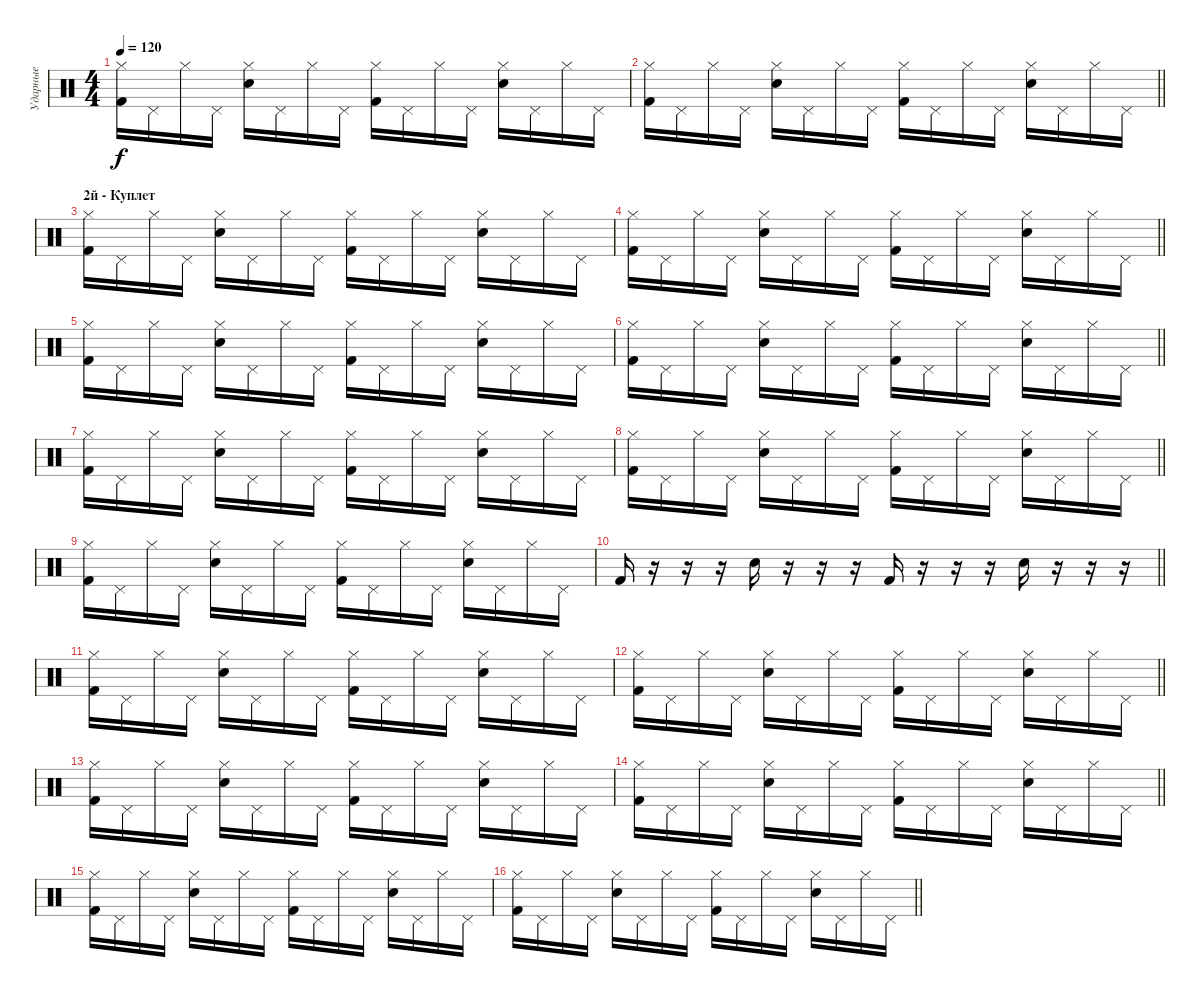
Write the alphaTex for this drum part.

\track ("Ударные" "Ударные") {instrument percussion}
\staff {score}
\articulation defaults
\ts (4 4)
\tempo 120
\clef neutral
\ks c
("Hi-Hat (closed)" "Kick (hit) 2").16{dy f} "Pedal Hi-Hat (hit)".16 "Hi-Hat (closed)".16 "Pedal Hi-Hat (hit)".16 ("Hi-Hat (closed)" "Snare (hit) 2").16 "Pedal Hi-Hat (hit)".16 "Hi-Hat (closed)".16 "Pedal Hi-Hat (hit)".16 ("Hi-Hat (closed)" "Kick (hit) 2").16 "Pedal Hi-Hat (hit)".16 "Hi-Hat (closed)".16 "Pedal Hi-Hat (hit)".16 ("Hi-Hat (closed)" "Snare (hit) 2").16 "Pedal Hi-Hat (hit)".16 "Hi-Hat (closed)".16 "Pedal Hi-Hat (hit)".16 |
\barLineRight lightlight
("Hi-Hat (closed)" "Kick (hit) 2").16 "Pedal Hi-Hat (hit)".16 "Hi-Hat (closed)".16 "Pedal Hi-Hat (hit)".16 ("Hi-Hat (closed)" "Snare (hit) 2").16 "Pedal Hi-Hat (hit)".16 "Hi-Hat (closed)".16 "Pedal Hi-Hat (hit)".16 ("Hi-Hat (closed)" "Kick (hit) 2").16 "Pedal Hi-Hat (hit)".16 "Hi-Hat (closed)".16 "Pedal Hi-Hat (hit)".16 ("Hi-Hat (closed)" "Snare (hit) 2").16 "Pedal Hi-Hat (hit)".16 "Hi-Hat (closed)".16 "Pedal Hi-Hat (hit)".16 |
\section ("" "2й - Куплет")
("Hi-Hat (closed)" "Kick (hit) 2").16 "Pedal Hi-Hat (hit)".16 "Hi-Hat (closed)".16 "Pedal Hi-Hat (hit)".16 ("Hi-Hat (closed)" "Snare (hit) 2").16 "Pedal Hi-Hat (hit)".16 "Hi-Hat (closed)".16 "Pedal Hi-Hat (hit)".16 ("Hi-Hat (closed)" "Kick (hit) 2").16 "Pedal Hi-Hat (hit)".16 "Hi-Hat (closed)".16 "Pedal Hi-Hat (hit)".16 ("Hi-Hat (closed)" "Snare (hit) 2").16 "Pedal Hi-Hat (hit)".16 "Hi-Hat (closed)".16 "Pedal Hi-Hat (hit)".16 |
\barLineRight lightlight
("Hi-Hat (closed)" "Kick (hit) 2").16 "Pedal Hi-Hat (hit)".16 "Hi-Hat (closed)".16 "Pedal Hi-Hat (hit)".16 ("Hi-Hat (closed)" "Snare (hit) 2").16 "Pedal Hi-Hat (hit)".16 "Hi-Hat (closed)".16 "Pedal Hi-Hat (hit)".16 ("Hi-Hat (closed)" "Kick (hit) 2").16 "Pedal Hi-Hat (hit)".16 "Hi-Hat (closed)".16 "Pedal Hi-Hat (hit)".16 ("Hi-Hat (closed)" "Snare (hit) 2").16 "Pedal Hi-Hat (hit)".16 "Hi-Hat (closed)".16 "Pedal Hi-Hat (hit)".16 |
("Hi-Hat (closed)" "Kick (hit) 2").16 "Pedal Hi-Hat (hit)".16 "Hi-Hat (closed)".16 "Pedal Hi-Hat (hit)".16 ("Hi-Hat (closed)" "Snare (hit) 2").16 "Pedal Hi-Hat (hit)".16 "Hi-Hat (closed)".16 "Pedal Hi-Hat (hit)".16 ("Hi-Hat (closed)" "Kick (hit) 2").16 "Pedal Hi-Hat (hit)".16 "Hi-Hat (closed)".16 "Pedal Hi-Hat (hit)".16 ("Hi-Hat (closed)" "Snare (hit) 2").16 "Pedal Hi-Hat (hit)".16 "Hi-Hat (closed)".16 "Pedal Hi-Hat (hit)".16 |
\barLineRight lightlight
("Hi-Hat (closed)" "Kick (hit) 2").16 "Pedal Hi-Hat (hit)".16 "Hi-Hat (closed)".16 "Pedal Hi-Hat (hit)".16 ("Hi-Hat (closed)" "Snare (hit) 2").16 "Pedal Hi-Hat (hit)".16 "Hi-Hat (closed)".16 "Pedal Hi-Hat (hit)".16 ("Hi-Hat (closed)" "Kick (hit) 2").16 "Pedal Hi-Hat (hit)".16 "Hi-Hat (closed)".16 "Pedal Hi-Hat (hit)".16 ("Hi-Hat (closed)" "Snare (hit) 2").16 "Pedal Hi-Hat (hit)".16 "Hi-Hat (closed)".16 "Pedal Hi-Hat (hit)".16 |
("Hi-Hat (closed)" "Kick (hit) 2").16 "Pedal Hi-Hat (hit)".16 "Hi-Hat (closed)".16 "Pedal Hi-Hat (hit)".16 ("Hi-Hat (closed)" "Snare (hit) 2").16 "Pedal Hi-Hat (hit)".16 "Hi-Hat (closed)".16 "Pedal Hi-Hat (hit)".16 ("Hi-Hat (closed)" "Kick (hit) 2").16 "Pedal Hi-Hat (hit)".16 "Hi-Hat (closed)".16 "Pedal Hi-Hat (hit)".16 ("Hi-Hat (closed)" "Snare (hit) 2").16 "Pedal Hi-Hat (hit)".16 "Hi-Hat (closed)".16 "Pedal Hi-Hat (hit)".16 |
\barLineRight lightlight
("Hi-Hat (closed)" "Kick (hit) 2").16 "Pedal Hi-Hat (hit)".16 "Hi-Hat (closed)".16 "Pedal Hi-Hat (hit)".16 ("Hi-Hat (closed)" "Snare (hit) 2").16 "Pedal Hi-Hat (hit)".16 "Hi-Hat (closed)".16 "Pedal Hi-Hat (hit)".16 ("Hi-Hat (closed)" "Kick (hit) 2").16 "Pedal Hi-Hat (hit)".16 "Hi-Hat (closed)".16 "Pedal Hi-Hat (hit)".16 ("Hi-Hat (closed)" "Snare (hit) 2").16 "Pedal Hi-Hat (hit)".16 "Hi-Hat (closed)".16 "Pedal Hi-Hat (hit)".16 |
("Hi-Hat (closed)" "Kick (hit) 2").16 "Pedal Hi-Hat (hit)".16 "Hi-Hat (closed)".16 "Pedal Hi-Hat (hit)".16 ("Hi-Hat (closed)" "Snare (hit) 2").16 "Pedal Hi-Hat (hit)".16 "Hi-Hat (closed)".16 "Pedal Hi-Hat (hit)".16 ("Hi-Hat (closed)" "Kick (hit) 2").16 "Pedal Hi-Hat (hit)".16 "Hi-Hat (closed)".16 "Pedal Hi-Hat (hit)".16 ("Hi-Hat (closed)" "Snare (hit) 2").16 "Pedal Hi-Hat (hit)".16 "Hi-Hat (closed)".16 "Pedal Hi-Hat (hit)".16 |
\barLineRight lightlight "Kick (hit) 2".16
r.16 r.16 r.16 "Snare (hit) 2".16 r.16 r.16 r.16 "Kick (hit) 2".16 r.16 r.16 r.16 "Snare (hit) 2".16 r.16 r.16 r.16 |
("Hi-Hat (closed)" "Kick (hit) 2").16 "Pedal Hi-Hat (hit)".16 "Hi-Hat (closed)".16 "Pedal Hi-Hat (hit)".16 ("Hi-Hat (closed)" "Snare (hit) 2").16 "Pedal Hi-Hat (hit)".16 "Hi-Hat (closed)".16 "Pedal Hi-Hat (hit)".16 ("Hi-Hat (closed)" "Kick (hit) 2").16 "Pedal Hi-Hat (hit)".16 "Hi-Hat (closed)".16 "Pedal Hi-Hat (hit)".16 ("Hi-Hat (closed)" "Snare (hit) 2").16 "Pedal Hi-Hat (hit)".16 "Hi-Hat (closed)".16 "Pedal Hi-Hat (hit)".16 |
\barLineRight lightlight
("Hi-Hat (closed)" "Kick (hit) 2").16 "Pedal Hi-Hat (hit)".16 "Hi-Hat (closed)".16 "Pedal Hi-Hat (hit)".16 ("Hi-Hat (closed)" "Snare (hit) 2").16 "Pedal Hi-Hat (hit)".16 "Hi-Hat (closed)".16 "Pedal Hi-Hat (hit)".16 ("Hi-Hat (closed)" "Kick (hit) 2").16 "Pedal Hi-Hat (hit)".16 "Hi-Hat (closed)".16 "Pedal Hi-Hat (hit)".16 ("Hi-Hat (closed)" "Snare (hit) 2").16 "Pedal Hi-Hat (hit)".16 "Hi-Hat (closed)".16 "Pedal Hi-Hat (hit)".16 |
("Hi-Hat (closed)" "Kick (hit) 2").16 "Pedal Hi-Hat (hit)".16 "Hi-Hat (closed)".16 "Pedal Hi-Hat (hit)".16 ("Hi-Hat (closed)" "Snare (hit) 2").16 "Pedal Hi-Hat (hit)".16 "Hi-Hat (closed)".16 "Pedal Hi-Hat (hit)".16 ("Hi-Hat (closed)" "Kick (hit) 2").16 "Pedal Hi-Hat (hit)".16 "Hi-Hat (closed)".16 "Pedal Hi-Hat (hit)".16 ("Hi-Hat (closed)" "Snare (hit) 2").16 "Pedal Hi-Hat (hit)".16 "Hi-Hat (closed)".16 "Pedal Hi-Hat (hit)".16 |
\barLineRight lightlight
("Hi-Hat (closed)" "Kick (hit) 2").16 "Pedal Hi-Hat (hit)".16 "Hi-Hat (closed)".16 "Pedal Hi-Hat (hit)".16 ("Hi-Hat (closed)" "Snare (hit) 2").16 "Pedal Hi-Hat (hit)".16 "Hi-Hat (closed)".16 "Pedal Hi-Hat (hit)".16 ("Hi-Hat (closed)" "Kick (hit) 2").16 "Pedal Hi-Hat (hit)".16 "Hi-Hat (closed)".16 "Pedal Hi-Hat (hit)".16 ("Hi-Hat (closed)" "Snare (hit) 2").16 "Pedal Hi-Hat (hit)".16 "Hi-Hat (closed)".16 "Pedal Hi-Hat (hit)".16 |
("Hi-Hat (closed)" "Kick (hit) 2").16 "Pedal Hi-Hat (hit)".16 "Hi-Hat (closed)".16 "Pedal Hi-Hat (hit)".16 ("Hi-Hat (closed)" "Snare (hit) 2").16 "Pedal Hi-Hat (hit)".16 "Hi-Hat (closed)".16 "Pedal Hi-Hat (hit)".16 ("Hi-Hat (closed)" "Kick (hit) 2").16 "Pedal Hi-Hat (hit)".16 "Hi-Hat (closed)".16 "Pedal Hi-Hat (hit)".16 ("Hi-Hat (closed)" "Snare (hit) 2").16 "Pedal Hi-Hat (hit)".16 "Hi-Hat (closed)".16 "Pedal Hi-Hat (hit)".16 |
\barLineRight lightlight
("Hi-Hat (closed)" "Kick (hit) 2").16 "Pedal Hi-Hat (hit)".16 "Hi-Hat (closed)".16 "Pedal Hi-Hat (hit)".16 ("Hi-Hat (closed)" "Snare (hit) 2").16 "Pedal Hi-Hat (hit)".16 "Hi-Hat (closed)".16 "Pedal Hi-Hat (hit)".16 ("Hi-Hat (closed)" "Kick (hit) 2").16 "Pedal Hi-Hat (hit)".16 "Hi-Hat (closed)".16 "Pedal Hi-Hat (hit)".16 ("Hi-Hat (closed)" "Snare (hit) 2").16 "Pedal Hi-Hat (hit)".16 "Hi-Hat (closed)".16 "Pedal Hi-Hat (hit)".16
